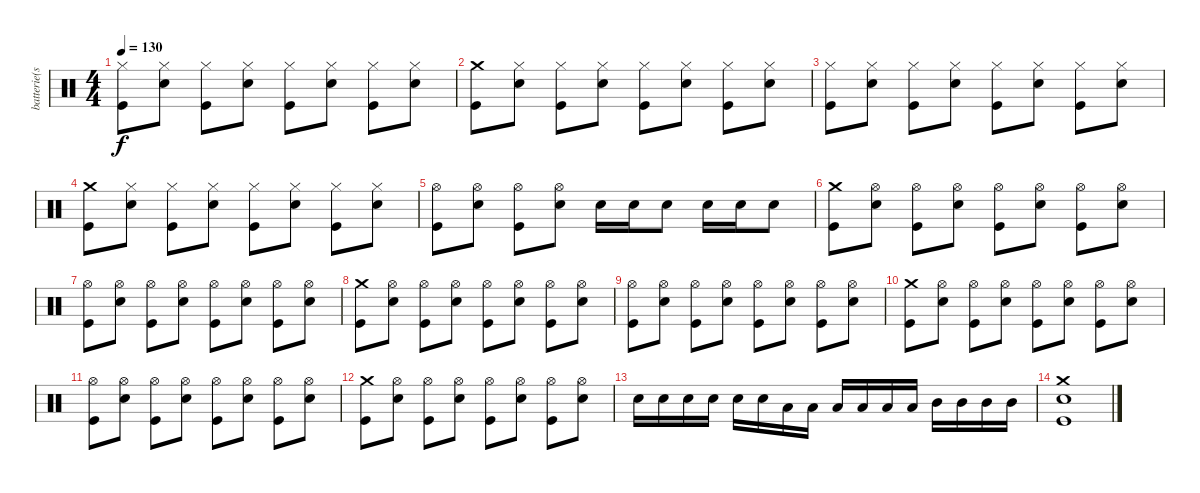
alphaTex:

\track ("batterie(steve)" "batterie(s") {instrument percussion}
\staff {score}
\articulation defaults
\ts (4 4)
\tempo 130
\clef neutral
\ks c
("Hi-Hat (closed)" "Kick (hit)").8{dy f} ("Hi-Hat (closed)" "Snare (hit) 2").8 ("Hi-Hat (closed)" "Kick (hit)").8 ("Hi-Hat (closed)" "Snare (hit) 2").8 ("Hi-Hat (closed)" "Kick (hit)").8 ("Hi-Hat (closed)" "Snare (hit) 2").8 ("Hi-Hat (closed)" "Kick (hit)").8 ("Hi-Hat (closed)" "Snare (hit) 2").8 |
("Crash medium (hit)" "Kick (hit)").8 ("Hi-Hat (closed)" "Snare (hit) 2").8 ("Hi-Hat (closed)" "Kick (hit)").8 ("Hi-Hat (closed)" "Snare (hit) 2").8 ("Hi-Hat (closed)" "Kick (hit)").8 ("Hi-Hat (closed)" "Snare (hit) 2").8 ("Hi-Hat (closed)" "Kick (hit)").8 ("Hi-Hat (closed)" "Snare (hit) 2").8 |
("Hi-Hat (closed)" "Kick (hit)").8 ("Hi-Hat (closed)" "Snare (hit) 2").8 ("Hi-Hat (closed)" "Kick (hit)").8 ("Hi-Hat (closed)" "Snare (hit) 2").8 ("Hi-Hat (closed)" "Kick (hit)").8 ("Hi-Hat (closed)" "Snare (hit) 2").8 ("Hi-Hat (closed)" "Kick (hit)").8 ("Hi-Hat (closed)" "Snare (hit) 2").8 |
("Crash medium (hit)" "Kick (hit)").8 ("Hi-Hat (closed)" "Snare (hit) 2").8 ("Hi-Hat (closed)" "Kick (hit)").8 ("Hi-Hat (closed)" "Snare (hit) 2").8 ("Hi-Hat (closed)" "Kick (hit)").8 ("Hi-Hat (closed)" "Snare (hit) 2").8 ("Hi-Hat (closed)" "Kick (hit)").8 ("Hi-Hat (closed)" "Snare (hit) 2").8 |
("Hi-Hat (open)" "Kick (hit)").8 ("Hi-Hat (open)" "Snare (hit) 2").8 ("Hi-Hat (open)" "Kick (hit)").8 ("Hi-Hat (open)" "Snare (hit) 2").8 "Snare (hit) 2".16 "Snare (hit) 2".16 "Snare (hit) 2".8 "Snare (hit) 2".16 "Snare (hit) 2".16 "Snare (hit) 2".8 |
("Crash medium (hit)" "Kick (hit)").8 ("Hi-Hat (open)" "Snare (hit) 2").8 ("Hi-Hat (open)" "Kick (hit)").8 ("Hi-Hat (open)" "Snare (hit) 2").8 ("Hi-Hat (open)" "Kick (hit)").8 ("Hi-Hat (open)" "Snare (hit) 2").8 ("Hi-Hat (open)" "Kick (hit)").8 ("Hi-Hat (open)" "Snare (hit) 2").8 |
("Hi-Hat (open)" "Kick (hit)").8 ("Hi-Hat (open)" "Snare (hit) 2").8 ("Hi-Hat (open)" "Kick (hit)").8 ("Hi-Hat (open)" "Snare (hit) 2").8 ("Hi-Hat (open)" "Kick (hit)").8 ("Hi-Hat (open)" "Snare (hit) 2").8 ("Hi-Hat (open)" "Kick (hit)").8 ("Hi-Hat (open)" "Snare (hit) 2").8 |
("Crash medium (hit)" "Kick (hit)").8 ("Hi-Hat (open)" "Snare (hit) 2").8 ("Hi-Hat (open)" "Kick (hit)").8 ("Hi-Hat (open)" "Snare (hit) 2").8 ("Hi-Hat (open)" "Kick (hit)").8 ("Hi-Hat (open)" "Snare (hit) 2").8 ("Hi-Hat (open)" "Kick (hit)").8 ("Hi-Hat (open)" "Snare (hit) 2").8 |
("Hi-Hat (open)" "Kick (hit)").8 ("Hi-Hat (open)" "Snare (hit) 2").8 ("Hi-Hat (open)" "Kick (hit)").8 ("Hi-Hat (open)" "Snare (hit) 2").8 ("Hi-Hat (open)" "Kick (hit)").8 ("Hi-Hat (open)" "Snare (hit) 2").8 ("Hi-Hat (open)" "Kick (hit)").8 ("Hi-Hat (open)" "Snare (hit) 2").8 |
("Crash medium (hit)" "Kick (hit)").8 ("Hi-Hat (open)" "Snare (hit) 2").8 ("Hi-Hat (open)" "Kick (hit)").8 ("Hi-Hat (open)" "Snare (hit) 2").8 ("Hi-Hat (open)" "Kick (hit)").8 ("Hi-Hat (open)" "Snare (hit) 2").8 ("Hi-Hat (open)" "Kick (hit)").8 ("Hi-Hat (open)" "Snare (hit) 2").8 |
("Hi-Hat (open)" "Kick (hit)").8 ("Hi-Hat (open)" "Snare (hit) 2").8 ("Hi-Hat (open)" "Kick (hit)").8 ("Hi-Hat (open)" "Snare (hit) 2").8 ("Hi-Hat (open)" "Kick (hit)").8 ("Hi-Hat (open)" "Snare (hit) 2").8 ("Hi-Hat (open)" "Kick (hit)").8 ("Hi-Hat (open)" "Snare (hit) 2").8 |
("Crash medium (hit)" "Kick (hit)").8 ("Hi-Hat (open)" "Snare (hit) 2").8 ("Hi-Hat (open)" "Kick (hit)").8 ("Hi-Hat (open)" "Snare (hit) 2").8 ("Hi-Hat (open)" "Kick (hit)").8 ("Hi-Hat (open)" "Snare (hit) 2").8 ("Hi-Hat (open)" "Kick (hit)").8 ("Hi-Hat (open)" "Snare (hit) 2").8 |
"Snare (hit) 2".16 "Snare (hit) 2".16 "Snare (hit) 2".16 "Snare (hit) 2".16 "Snare (hit) 2".16 "Snare (hit) 2".16 "Low Tom (hit)".16 "Low Tom (hit)".16 "Low Tom (hit)".16 "Low Tom (hit)".16 "Low Tom (hit)".16 "Low Tom (hit)".16 "Mid Tom (hit)".16 "Mid Tom (hit)".16 "Mid Tom (hit)".16 "Mid Tom (hit)".16 |
("Crash medium (hit)" "Snare (hit) 2" "Kick (hit)").1
